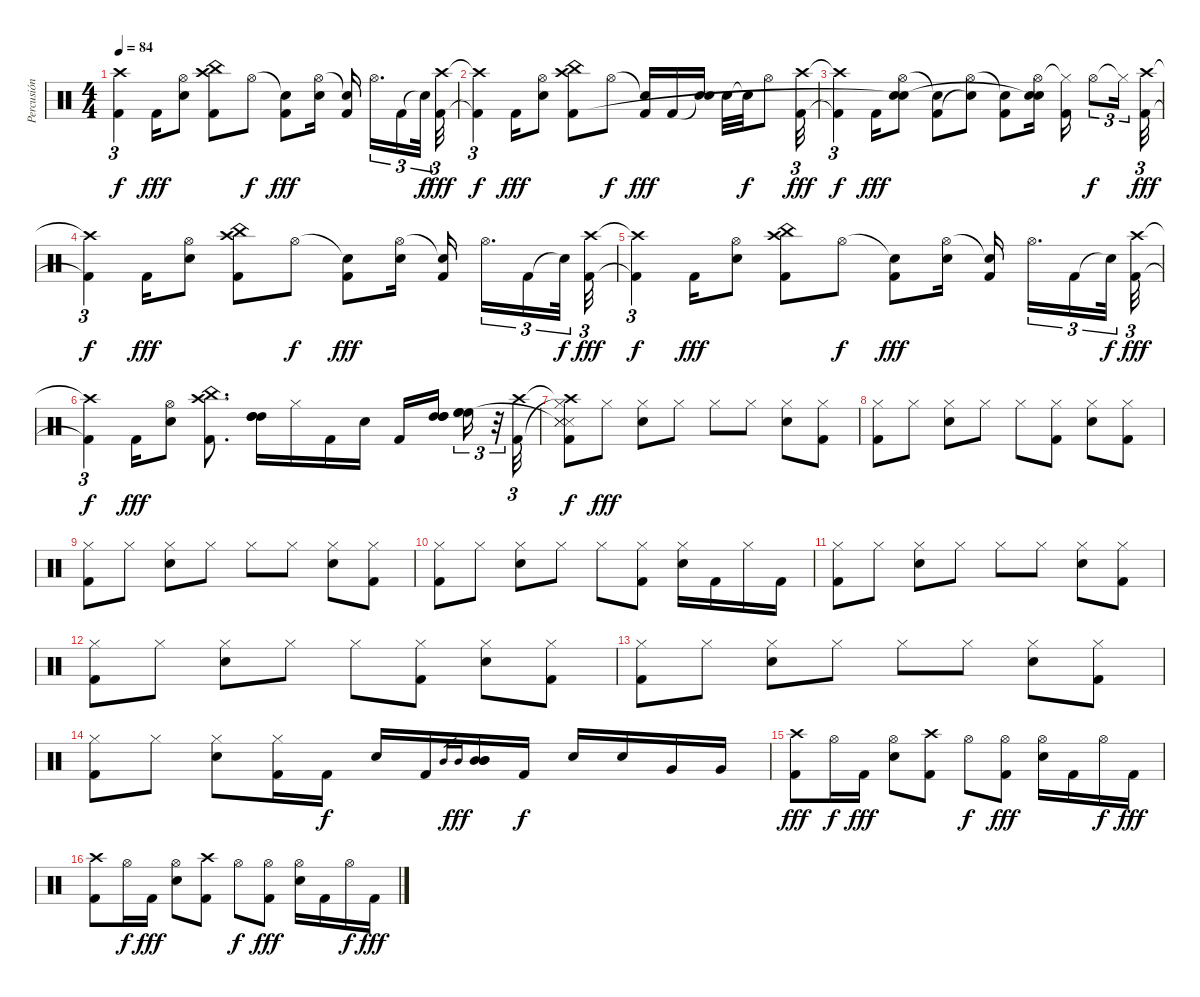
\track ("Percusión" "Percusión") {instrument percussion}
\staff {score}
\articulation defaults
\ts (4 4)
\tempo 84
\clef neutral
\ks c
("Crash high (hit)"{t} "Kick (hit) 2"{t}).4{tu (3 2) dy f} "Kick (hit) 2".16{dy fff} ("Hi-Hat (open)" "Snare (hit) 2").8 ("Crash high (hit)" "China (hit)" "Kick (hit) 2").8 "Hi-Hat (open)".8{dy f} ("Snare (hit)"{t} "Kick (hit) 2").8{dy fff} ("Hi-Hat (open)" "Snare (hit) 2").16 ("Snare (hit)"{t} "Kick (hit) 2").16{beam splitsecondary} "Hi-Hat (open)".16{d tu (3 2)} "Kick (hit) 2".16{tu (3 2)} "Snare (hit)"{t}.32{tu (3 2) dy f} ("Crash high (hit)" "Kick (hit) 2").32{tu (3 2) dy fff} |
("Crash high (hit)"{t} "Kick (hit) 2"{t}).4{tu (3 2) dy f} "Kick (hit) 2".16{dy fff} ("Hi-Hat (open)" "Snare (hit) 2").8 ("Crash high (hit)" "China (hit)" "Kick (hit) 2").8 "Hi-Hat (open)".8{dy f} ("Snare (hit)"{t} "Kick (hit) 2").16{dy fff} "Kick (hit) 2".16 ("Snare (hit)"{t} "Snare (hit) 2").16 "Snare (hit) 2".32 "Snare (hit)"{t}.32{dy f} "Hi-Hat (open)".8 ("Crash high (hit)" "Kick (hit) 2").32{tu (3 2) dy fff} |
("Crash high (hit)"{t} "Kick (hit) 2"{t}).4{tu (3 2) dy f} "Kick (hit) 2".16{dy fff} ("Hi-Hat (open)" "Snare (hit) 2" "Snare (hit)"{t}).8 ("Snare (hit)"{t} "Kick (hit) 2").8 ("Hi-Hat (open)" "Snare (hit)"{t}).8 ("Snare (hit)"{t} "Kick (hit) 2").8 ("Hi-Hat (open)" "Snare (hit) 2" "Snare (hit)"{t}).16 ("Hi-Hat (closed)"{t} "Kick (hit) 2").16 "Hi-Hat (open)".8{tu (3 2) dy f} "Hi-Hat (closed)"{t}.16{tu (3 2)} ("Crash high (hit)" "Kick (hit) 2").32{tu (3 2) dy fff} |
("Crash high (hit)"{t} "Kick (hit) 2"{t}).4{tu (3 2) dy f} "Kick (hit) 2".16{dy fff} ("Hi-Hat (open)" "Snare (hit) 2").8 ("Crash high (hit)" "China (hit)" "Kick (hit) 2").8 "Hi-Hat (open)".8{dy f} ("Snare (hit)"{t} "Kick (hit) 2").8{dy fff} ("Hi-Hat (open)" "Snare (hit) 2").16 ("Snare (hit)"{t} "Kick (hit) 2").16{beam splitsecondary} "Hi-Hat (open)".16{d tu (3 2)} "Kick (hit) 2".16{tu (3 2)} "Snare (hit)"{t}.32{tu (3 2) dy f} ("Crash high (hit)" "Kick (hit) 2").32{tu (3 2) dy fff} |
("Crash high (hit)"{t} "Kick (hit) 2"{t}).4{tu (3 2) dy f} "Kick (hit) 2".16{dy fff} ("Hi-Hat (open)" "Snare (hit) 2").8 ("Crash high (hit)" "China (hit)" "Kick (hit) 2").8 "Hi-Hat (open)".8{dy f} ("Snare (hit)"{t} "Kick (hit) 2").8{dy fff} ("Hi-Hat (open)" "Snare (hit) 2").16 ("Snare (hit)"{t} "Kick (hit) 2").16{beam splitsecondary} "Hi-Hat (open)".16{d tu (3 2)} "Kick (hit) 2".16{tu (3 2)} "Snare (hit)"{t}.32{tu (3 2) dy f} ("Crash high (hit)" "Kick (hit) 2").32{tu (3 2) dy fff} |
("Crash high (hit)"{t} "Kick (hit) 2"{t}).4{tu (3 2) dy f} "Kick (hit) 2".16{dy fff} ("Hi-Hat (open)" "Snare (hit) 2").8 ("Crash high (hit)" "China (hit)" "Kick (hit) 2").8{d} ("High Tom (hit)" "High Tom (hit)" "High Tom (hit)").16 "Hi-Hat (closed)".16 "Kick (hit) 2".16 "Snare (hit) 2".16 "Kick (hit) 2".16 ("High Tom (hit)" "High Tom (hit)" "High Tom (hit)").16{beam splitsecondary} ("High Floor Tom (hit)" "High Floor Tom (hit)" "High Floor Tom (hit)").16{tu (3 2)} r.32{tu (3 2)} ("Crash high (hit)" "Kick (hit) 2").32{tu (3 2)} |
("Crash high (hit)"{t} "Hi-Hat (closed)"{t} "Snare (side stick) 3"{t} "Snare (side stick) 3" "Snare (side stick) 3" "Kick (hit) 2").8{dy f} "Hi-Hat (closed)".8{dy fff} ("Hi-Hat (closed)" "Snare (hit) 2").8 "Hi-Hat (closed)".8 "Hi-Hat (closed)".8 "Hi-Hat (closed)".8 ("Hi-Hat (closed)" "Snare (hit) 2").8 ("Hi-Hat (closed)" "Kick (hit) 2").8 |
("Hi-Hat (closed)" "Kick (hit) 2").8 "Hi-Hat (closed)".8 ("Hi-Hat (closed)" "Snare (hit) 2").8 "Hi-Hat (closed)".8 "Hi-Hat (closed)".8 ("Hi-Hat (closed)" "Kick (hit) 2").8 ("Hi-Hat (closed)" "Snare (hit) 2").8 ("Hi-Hat (closed)" "Kick (hit) 2").8 |
("Hi-Hat (closed)" "Kick (hit) 2").8 "Hi-Hat (closed)".8 ("Hi-Hat (closed)" "Snare (hit) 2").8 "Hi-Hat (closed)".8 "Hi-Hat (closed)".8 "Hi-Hat (closed)".8 ("Hi-Hat (closed)" "Snare (hit) 2").8 ("Hi-Hat (closed)" "Kick (hit) 2").8 |
("Hi-Hat (closed)" "Kick (hit) 2").8 "Hi-Hat (closed)".8 ("Hi-Hat (closed)" "Snare (hit) 2").8 "Hi-Hat (closed)".8 "Hi-Hat (closed)".8 ("Hi-Hat (closed)" "Kick (hit) 2").8 ("Hi-Hat (closed)" "Snare (hit) 2").16 "Kick (hit) 2".16 "Hi-Hat (closed)".16 "Kick (hit) 2".16 |
("Hi-Hat (closed)" "Kick (hit) 2").8 "Hi-Hat (closed)".8 ("Hi-Hat (closed)" "Snare (hit) 2").8 "Hi-Hat (closed)".8 "Hi-Hat (closed)".8 "Hi-Hat (closed)".8 ("Hi-Hat (closed)" "Snare (hit) 2").8 ("Hi-Hat (closed)" "Kick (hit) 2").8 |
("Hi-Hat (closed)" "Kick (hit) 2").8 "Hi-Hat (closed)".8 ("Hi-Hat (closed)" "Snare (hit) 2").8 "Hi-Hat (closed)".8 "Hi-Hat (closed)".8 ("Hi-Hat (closed)" "Kick (hit) 2").8 ("Hi-Hat (closed)" "Snare (hit) 2").8 ("Hi-Hat (closed)" "Kick (hit) 2").8 |
("Hi-Hat (closed)" "Kick (hit) 2").8 "Hi-Hat (closed)".8 ("Hi-Hat (closed)" "Snare (hit) 2").8 "Hi-Hat (closed)".8 "Hi-Hat (closed)".8 "Hi-Hat (closed)".8 ("Hi-Hat (closed)" "Snare (hit) 2").8 ("Hi-Hat (closed)" "Kick (hit) 2").8 |
("Hi-Hat (closed)" "Kick (hit) 2").8 "Hi-Hat (closed)".8 ("Hi-Hat (closed)" "Snare (hit) 2").8 ("Hi-Hat (closed)" "Kick (hit) 2").16 "Kick (hit) 2".16{dy f} "Snare (hit) 2".16 "Kick (hit) 2".16 "Mid Tom (hit)".16{gr} "Mid Tom (hit)".16{gr dy fff} ("Mid Tom (hit)" "Mid Tom (hit)" "Mid Tom (hit)").16 "Kick (hit) 2".16{dy f} "Snare (hit) 2".16 "Snare (hit) 2".16 "Very Low Tom (hit)".16 "Very Low Tom (hit)".16 |
("Crash high (hit)" "Kick (hit) 2").8{dy fff} "Hi-Hat (open)".16{dy f} "Kick (hit) 2".16{dy fff} ("Hi-Hat (open)" "Snare (hit) 2").8 ("Crash high (hit)" "Kick (hit) 2").8 "Hi-Hat (open)".8{dy f} ("Hi-Hat (open)" "Kick (hit) 2").8{dy fff} ("Hi-Hat (open)" "Snare (hit) 2").16 "Kick (hit) 2".16 "Hi-Hat (open)".16{dy f} "Kick (hit) 2".16{dy fff} |
("Crash high (hit)" "Kick (hit) 2").8 "Hi-Hat (open)".16{dy f} "Kick (hit) 2".16{dy fff} ("Hi-Hat (open)" "Snare (hit) 2").8 ("Crash high (hit)" "Kick (hit) 2").8 "Hi-Hat (open)".8{dy f} ("Hi-Hat (open)" "Kick (hit) 2").8{dy fff} ("Hi-Hat (open)" "Snare (hit) 2").16 "Kick (hit) 2".16 "Hi-Hat (open)".16{dy f} "Kick (hit) 2".16{dy fff}
